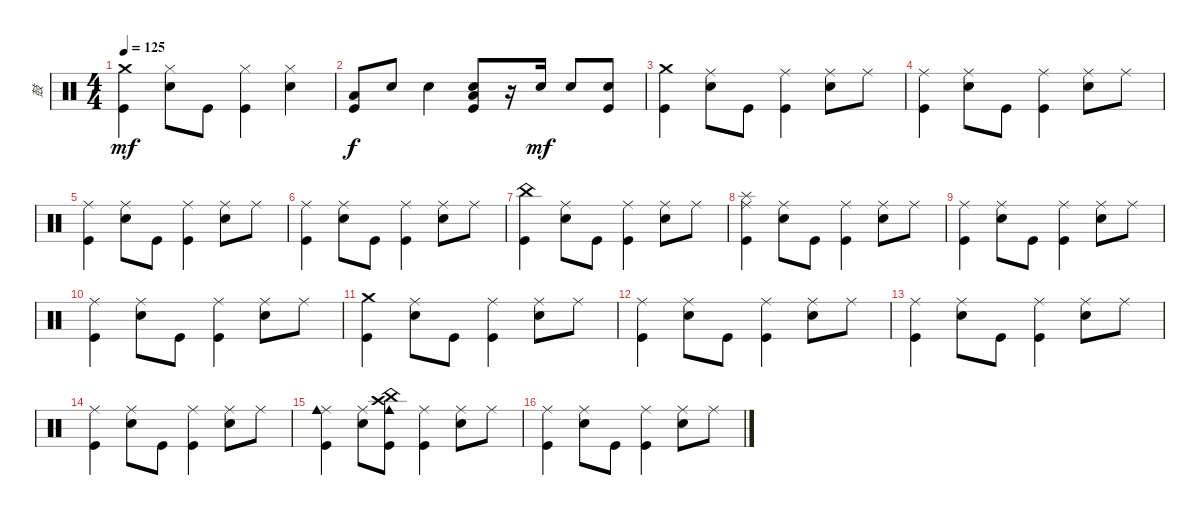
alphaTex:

\track ("鼓" "鼓") {instrument percussion}
\staff {score}
\articulation defaults
\ts (4 4)
\tempo 125
\clef neutral
\ks c
("Kick (hit)" "Crash medium (hit)").4{dy mf} ("Snare (hit) 2" "Hi-Hat (closed)").8 "Kick (hit)".8 ("Kick (hit)" "Hi-Hat (closed)").4 ("Snare (hit) 2" "Hi-Hat (closed)").4 |
("Kick (hit)" "Low Tom (hit)").8{dy f} "Snare (hit) 2".8 "Snare (hit) 2".4 ("Kick (hit)" "Low Floor Tom (hit)" "Snare (hit) 2").8 r.16 "Snare (hit) 2".16{dy mf} "Snare (hit) 2".8 ("Snare (hit) 2" "Kick (hit)").8 |
("Kick (hit)" "Crash medium (hit)").4 ("Snare (hit) 2" "Ride (middle)").8 "Kick (hit)".8 ("Kick (hit)" "Ride (middle)").4 ("Snare (hit) 2" "Ride (middle)").8 "Ride (middle)".8 |
("Kick (hit)" "Ride (middle)").4 ("Snare (hit) 2" "Ride (middle)").8 "Kick (hit)".8 ("Kick (hit)" "Ride (middle)").4 ("Snare (hit) 2" "Ride (middle)").8 "Ride (middle)".8 |
("Kick (hit)" "Ride (middle)").4 ("Snare (hit) 2" "Ride (middle)").8 "Kick (hit)".8 ("Kick (hit)" "Ride (middle)").4 ("Snare (hit) 2" "Ride (middle)").8 "Ride (middle)".8 |
("Kick (hit)" "Ride (middle)").4 ("Snare (hit) 2" "Ride (middle)").8 "Kick (hit)".8 ("Kick (hit)" "Ride (middle)").4 ("Snare (hit) 2" "Ride (middle)").8 "Ride (middle)".8 |
("Kick (hit)" "China (hit)").4 ("Snare (hit) 2" "Ride (middle)").8 "Kick (hit)".8 ("Kick (hit)" "Ride (middle)").4 ("Snare (hit) 2" "Ride (middle)").8 "Ride (middle)".8 |
("Kick (hit)" "Ride (middle)" "Splash (hit)").4 ("Snare (hit) 2" "Ride (middle)").8 "Kick (hit)".8 ("Kick (hit)" "Ride (middle)").4 ("Snare (hit) 2" "Ride (middle)").8 "Ride (middle)".8 |
("Kick (hit)" "Ride (middle)").4 ("Snare (hit) 2" "Ride (middle)").8 "Kick (hit)".8 ("Kick (hit)" "Ride (middle)").4 ("Snare (hit) 2" "Ride (middle)").8 "Ride (middle)".8 |
("Kick (hit)" "Ride (middle)").4 ("Snare (hit) 2" "Ride (middle)").8 "Kick (hit)".8 ("Kick (hit)" "Ride (middle)").4 ("Snare (hit) 2" "Ride (middle)").8 "Ride (middle)".8 |
("Kick (hit)" "Crash medium (hit)").4 ("Snare (hit) 2" "Ride (middle)").8 "Kick (hit)".8 ("Kick (hit)" "Ride (middle)").4 ("Snare (hit) 2" "Ride (middle)").8 "Ride (middle)".8 |
("Kick (hit)" "Ride (middle)").4 ("Snare (hit) 2" "Ride (middle)").8 "Kick (hit)".8 ("Kick (hit)" "Ride (middle)").4 ("Snare (hit) 2" "Ride (middle)").8 "Ride (middle)".8 |
("Kick (hit)" "Ride (middle)").4 ("Snare (hit) 2" "Ride (middle)").8 "Kick (hit)".8 ("Kick (hit)" "Ride (middle)").4 ("Snare (hit) 2" "Ride (middle)").8 "Ride (middle)".8 |
("Kick (hit)" "Ride (middle)").4 ("Snare (hit) 2" "Ride (middle)").8 "Kick (hit)".8 ("Kick (hit)" "Ride (middle)").4 ("Snare (hit) 2" "Ride (middle)").8 "Ride (middle)".8 |
("Kick (hit)" "Ride (middle)" "Cowbell medium (hit)").4 ("Snare (hit) 2" "Ride (middle)").8 ("Kick (hit)" "Cowbell medium (hit)" "Crash high (hit)" "China (hit)").8 ("Kick (hit)" "Ride (middle)").4 ("Snare (hit) 2" "Ride (middle)").8 "Ride (middle)".8 |
("Kick (hit)" "Ride (middle)").4 ("Snare (hit) 2" "Ride (middle)").8 "Kick (hit)".8 ("Kick (hit)" "Ride (middle)").4 ("Snare (hit) 2" "Ride (middle)").8 "Ride (middle)".8
